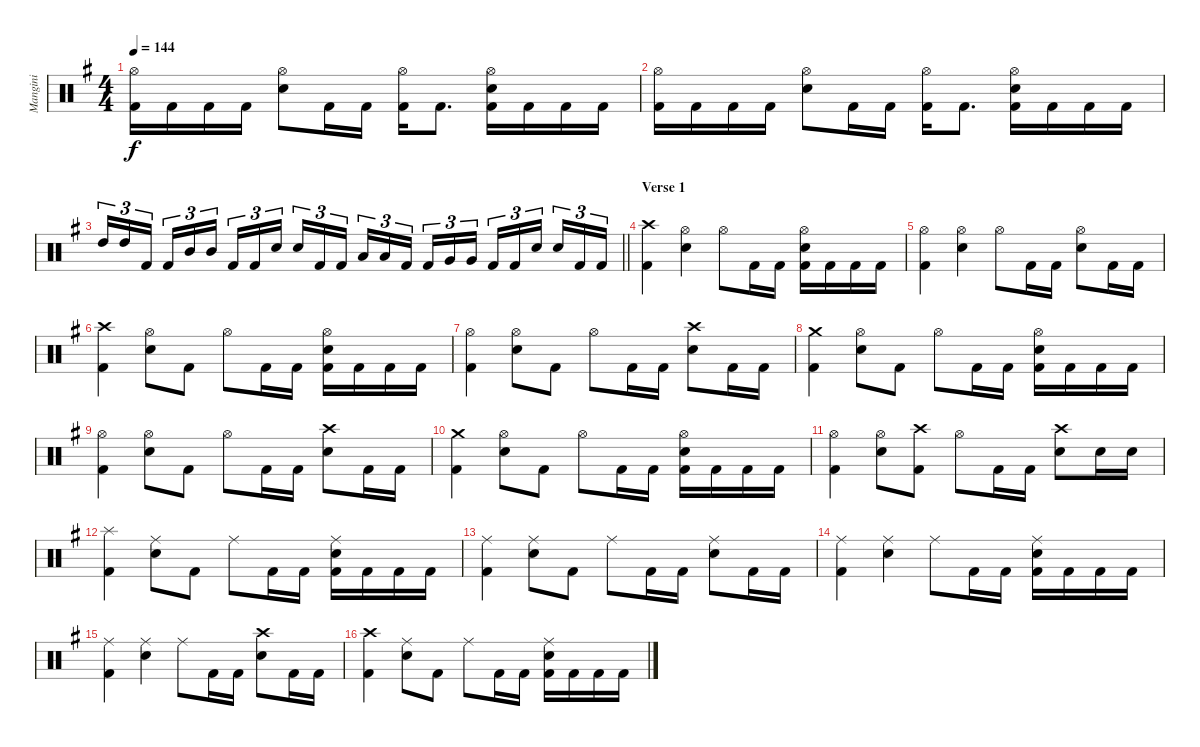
\track ("Mangini" "Mangini") {instrument percussion}
\staff {score}
\articulation defaults
\ts (4 4)
\tempo 144
\clef neutral
\ks eminor
("Hi-Hat (open)" "Kick (hit) 2").16{dy f} "Kick (hit) 2".16 "Kick (hit) 2".16 "Kick (hit) 2".16 ("Hi-Hat (open)" "Snare (hit) 2").8 "Kick (hit) 2".16 "Kick (hit) 2".16 ("Hi-Hat (open)" "Kick (hit) 2").16 "Kick (hit) 2".8{d} ("Hi-Hat (open)" "Snare (hit) 2" "Kick (hit) 2").16 "Kick (hit) 2".16 "Kick (hit) 2".16 "Kick (hit) 2".16 |
("Hi-Hat (open)" "Kick (hit) 2").16 "Kick (hit) 2".16 "Kick (hit) 2".16 "Kick (hit) 2".16 ("Hi-Hat (open)" "Snare (hit) 2").8 "Kick (hit) 2".16 "Kick (hit) 2".16 ("Hi-Hat (open)" "Kick (hit) 2").16 "Kick (hit) 2".8{d} ("Hi-Hat (open)" "Snare (hit) 2" "Kick (hit) 2").16 "Kick (hit) 2".16 "Kick (hit) 2".16 "Kick (hit) 2".16 |
\barLineRight lightlight "High Tom (hit)".16{tu (3 2)} "High Tom (hit)".16{tu (3 2)} "Kick (hit) 2".16{tu (3 2) beam splitsecondary} "Kick (hit) 2".16{tu (3 2)} "Mid Tom (hit)".16{tu (3 2)} "Mid Tom (hit)".16{tu (3 2)} "Kick (hit) 2".16{tu (3 2)} "Kick (hit) 2".16{tu (3 2)} "Snare (hit) 2".16{tu (3 2) beam splitsecondary} "Snare (hit) 2".16{tu (3 2)} "Kick (hit) 2".16{tu (3 2)} "Kick (hit) 2".16{tu (3 2)} "Low Tom (hit)".16{tu (3 2)} "Low Tom (hit)".16{tu (3 2)} "Kick (hit) 2".16{tu (3 2) beam splitsecondary} "Kick (hit) 2".16{tu (3 2)} "Very Low Tom (hit)".16{tu (3 2)} "Very Low Tom (hit)".16{tu (3 2)} "Kick (hit) 2".16{tu (3 2)} "Kick (hit) 2".16{tu (3 2)} "Snare (hit) 2".16{tu (3 2) beam splitsecondary} "Snare (hit) 2".16{tu (3 2)} "Kick (hit) 2".16{tu (3 2)} "Kick (hit) 2".16{tu (3 2)}
|
\section ("" "Verse 1")
("Crash high (hit)" "Kick (hit) 2").4 ("Hi-Hat (open)" "Snare (hit) 2").4 "Hi-Hat (open)".8 "Kick (hit) 2".16 "Kick (hit) 2".16 ("Hi-Hat (open)" "Snare (hit) 2" "Kick (hit) 2").16 "Kick (hit) 2".16 "Kick (hit) 2".16 "Kick (hit) 2".16 |
("Hi-Hat (open)" "Kick (hit) 2").4 ("Hi-Hat (open)" "Snare (hit) 2").4 "Hi-Hat (open)".8 "Kick (hit) 2".16 "Kick (hit) 2".16 ("Hi-Hat (open)" "Snare (hit) 2").8 "Kick (hit) 2".16 "Kick (hit) 2".16 |
("Crash high (hit)" "Kick (hit) 2").4 ("Hi-Hat (open)" "Snare (hit) 2").8 "Kick (hit) 2".8 "Hi-Hat (open)".8 "Kick (hit) 2".16 "Kick (hit) 2".16 ("Hi-Hat (open)" "Snare (hit) 2" "Kick (hit) 2").16 "Kick (hit) 2".16 "Kick (hit) 2".16 "Kick (hit) 2".16 |
("Hi-Hat (open)" "Kick (hit) 2").4 ("Hi-Hat (open)" "Snare (hit) 2").8 "Kick (hit) 2".8 "Hi-Hat (open)".8 "Kick (hit) 2".16 "Kick (hit) 2".16 ("Crash high (hit)" "Snare (hit) 2").8 "Kick (hit) 2".16 "Kick (hit) 2".16 |
("Crash medium (hit)" "Kick (hit) 2").4 ("Hi-Hat (open)" "Snare (hit) 2").8 "Kick (hit) 2".8 "Hi-Hat (open)".8 "Kick (hit) 2".16 "Kick (hit) 2".16 ("Hi-Hat (open)" "Snare (hit) 2" "Kick (hit) 2").16 "Kick (hit) 2".16 "Kick (hit) 2".16 "Kick (hit) 2".16 |
("Hi-Hat (open)" "Kick (hit) 2").4 ("Hi-Hat (open)" "Snare (hit) 2").8 "Kick (hit) 2".8 "Hi-Hat (open)".8 "Kick (hit) 2".16 "Kick (hit) 2".16 ("Crash high (hit)" "Snare (hit) 2").8 "Kick (hit) 2".16 "Kick (hit) 2".16 |
("Crash medium (hit)" "Kick (hit) 2").4 ("Hi-Hat (open)" "Snare (hit) 2").8 "Kick (hit) 2".8 "Hi-Hat (open)".8 "Kick (hit) 2".16 "Kick (hit) 2".16 ("Hi-Hat (open)" "Snare (hit) 2" "Kick (hit) 2").16 "Kick (hit) 2".16 "Kick (hit) 2".16 "Kick (hit) 2".16 |
("Hi-Hat (open)" "Kick (hit) 2").4 ("Hi-Hat (open)" "Snare (hit) 2").8 ("Crash high (hit)" "Kick (hit) 2").8 "Hi-Hat (open)".8 "Kick (hit) 2".16 "Kick (hit) 2".16 ("Crash high (hit)" "Snare (hit) 2").8 "Snare (hit) 2".16 "Snare (hit) 2".16 |
("Splash (hit)" "Kick (hit) 2").4 ("Ride (middle)" "Snare (hit) 2").8 "Kick (hit) 2".8 "Ride (middle)".8 "Kick (hit) 2".16 "Kick (hit) 2".16 ("Ride (middle)" "Snare (hit) 2" "Kick (hit) 2").16 "Kick (hit) 2".16 "Kick (hit) 2".16 "Kick (hit) 2".16 |
("Ride (middle)" "Kick (hit) 2").4 ("Ride (middle)" "Snare (hit) 2").8 "Kick (hit) 2".8 "Ride (middle)".8 "Kick (hit) 2".16 "Kick (hit) 2".16 ("Ride (middle)" "Snare (hit) 2").8 "Kick (hit) 2".16 "Kick (hit) 2".16 |
("Ride (middle)" "Kick (hit) 2").4 ("Ride (middle)" "Snare (hit) 2").4 "Ride (middle)".8 "Kick (hit) 2".16 "Kick (hit) 2".16 ("Ride (middle)" "Snare (hit) 2" "Kick (hit) 2").16 "Kick (hit) 2".16 "Kick (hit) 2".16 "Kick (hit) 2".16 |
("Ride (middle)" "Kick (hit) 2").4 ("Ride (middle)" "Snare (hit) 2").4 "Ride (middle)".8 "Kick (hit) 2".16 "Kick (hit) 2".16 ("Crash high (hit)" "Snare (hit) 2").8 "Kick (hit) 2".16 "Kick (hit) 2".16 |
("Crash high (hit)" "Kick (hit) 2").4 ("Ride (middle)" "Snare (hit) 2").8 "Kick (hit) 2".8 "Ride (middle)".8 "Kick (hit) 2".16 "Kick (hit) 2".16 ("Ride (middle)" "Snare (hit) 2" "Kick (hit) 2").16 "Kick (hit) 2".16 "Kick (hit) 2".16 "Kick (hit) 2".16
